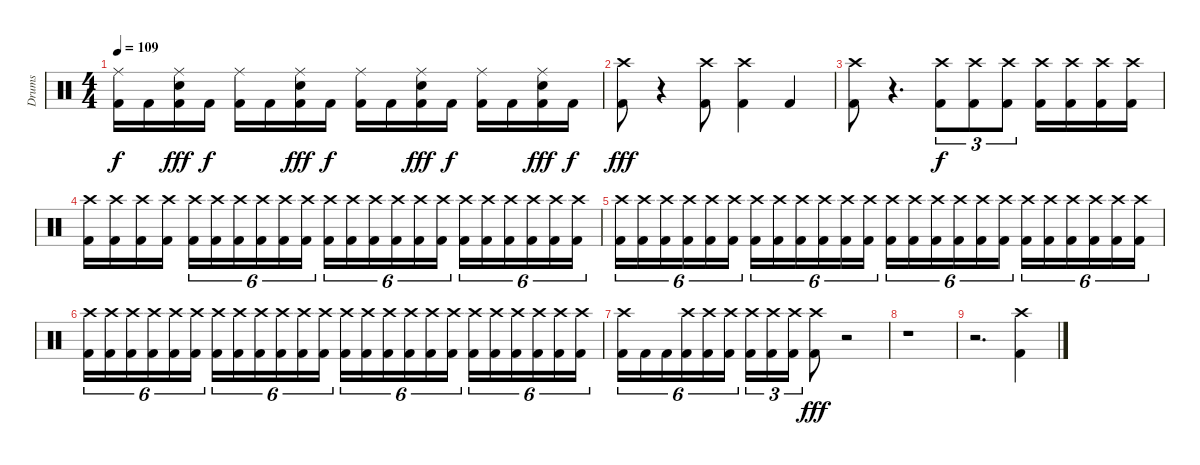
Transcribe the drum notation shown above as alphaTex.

\track ("Drums" "Drums") {instrument percussion}
\staff {score}
\articulation defaults
\ts (4 4)
\tempo 109
\clef neutral
\ks c
("Ride (middle)" "Kick (hit) 2").16{dy f} "Kick (hit) 2".16 ("Kick (hit) 2" "Snare (hit) 2" "Ride (middle)").16{dy fff} "Kick (hit) 2".16{dy f} ("Ride (middle)" "Kick (hit) 2").16 "Kick (hit) 2".16 ("Kick (hit) 2" "Snare (hit) 2" "Ride (middle)").16{dy fff} "Kick (hit) 2".16{dy f} ("Ride (middle)" "Kick (hit) 2").16 "Kick (hit) 2".16 ("Kick (hit) 2" "Snare (hit) 2" "Ride (middle)").16{dy fff} "Kick (hit) 2".16{dy f} ("Ride (middle)" "Kick (hit) 2").16 "Kick (hit) 2".16 ("Kick (hit) 2" "Snare (hit) 2" "Ride (middle)").16{dy fff} "Kick (hit) 2".16{dy f} |
("Kick (hit) 2" "Crash high (hit)").8{dy fff} r.4 ("Kick (hit) 2" "Crash high (hit)").8 ("Kick (hit) 2" "Crash high (hit)").4 "Kick (hit) 2".4 |
("Crash high (hit)" "Kick (hit) 2").8 r.4{d} ("Kick (hit) 2" "Crash high (hit)").8{tu (3 2) dy f} ("Kick (hit) 2" "Crash high (hit)").8{tu (3 2)} ("Kick (hit) 2" "Crash high (hit)").8{tu (3 2)} ("Kick (hit) 2" "Crash high (hit)").16 ("Kick (hit) 2" "Crash high (hit)").16 ("Kick (hit) 2" "Crash high (hit)").16 ("Kick (hit) 2" "Crash high (hit)").16 |
("Kick (hit) 2" "Crash high (hit)").16 ("Kick (hit) 2" "Crash high (hit)").16 ("Kick (hit) 2" "Crash high (hit)").16 ("Kick (hit) 2" "Crash high (hit)").16 ("Kick (hit) 2" "Crash high (hit)").16{tu (6 4)} ("Kick (hit) 2" "Crash high (hit)").16{tu (6 4)} ("Kick (hit) 2" "Crash high (hit)").16{tu (6 4)} ("Kick (hit) 2" "Crash high (hit)").16{tu (6 4)} ("Kick (hit) 2" "Crash high (hit)").16{tu (6 4)} ("Kick (hit) 2" "Crash high (hit)").16{tu (6 4)} ("Kick (hit) 2" "Crash high (hit)").16{tu (6 4)} ("Kick (hit) 2" "Crash high (hit)").16{tu (6 4)} ("Kick (hit) 2" "Crash high (hit)").16{tu (6 4)} ("Kick (hit) 2" "Crash high (hit)").16{tu (6 4)} ("Kick (hit) 2" "Crash high (hit)").16{tu (6 4)} ("Kick (hit) 2" "Crash high (hit)").16{tu (6 4)} ("Kick (hit) 2" "Crash high (hit)").16{tu (6 4)} ("Kick (hit) 2" "Crash high (hit)").16{tu (6 4)} ("Kick (hit) 2" "Crash high (hit)").16{tu (6 4)} ("Kick (hit) 2" "Crash high (hit)").16{tu (6 4)} ("Kick (hit) 2" "Crash high (hit)").16{tu (6 4)} ("Kick (hit) 2" "Crash high (hit)").16{tu (6 4)} |
("Kick (hit) 2" "Crash high (hit)").16{tu (6 4)} ("Kick (hit) 2" "Crash high (hit)").16{tu (6 4)} ("Kick (hit) 2" "Crash high (hit)").16{tu (6 4)} ("Kick (hit) 2" "Crash high (hit)").16{tu (6 4)} ("Kick (hit) 2" "Crash high (hit)").16{tu (6 4)} ("Kick (hit) 2" "Crash high (hit)").16{tu (6 4)} ("Kick (hit) 2" "Crash high (hit)").16{tu (6 4)} ("Kick (hit) 2" "Crash high (hit)").16{tu (6 4)} ("Kick (hit) 2" "Crash high (hit)").16{tu (6 4)} ("Kick (hit) 2" "Crash high (hit)").16{tu (6 4)} ("Kick (hit) 2" "Crash high (hit)").16{tu (6 4)} ("Kick (hit) 2" "Crash high (hit)").16{tu (6 4)} ("Kick (hit) 2" "Crash high (hit)").16{tu (6 4)} ("Kick (hit) 2" "Crash high (hit)").16{tu (6 4)} ("Kick (hit) 2" "Crash high (hit)").16{tu (6 4)} ("Kick (hit) 2" "Crash high (hit)").16{tu (6 4)} ("Kick (hit) 2" "Crash high (hit)").16{tu (6 4)} ("Kick (hit) 2" "Crash high (hit)").16{tu (6 4)} ("Kick (hit) 2" "Crash high (hit)").16{tu (6 4)} ("Kick (hit) 2" "Crash high (hit)").16{tu (6 4)} ("Kick (hit) 2" "Crash high (hit)").16{tu (6 4)} ("Kick (hit) 2" "Crash high (hit)").16{tu (6 4)} ("Kick (hit) 2" "Crash high (hit)").16{tu (6 4)} ("Kick (hit) 2" "Crash high (hit)").16{tu (6 4)} |
("Kick (hit) 2" "Crash high (hit)").16{tu (6 4)} ("Kick (hit) 2" "Crash high (hit)").16{tu (6 4)} ("Kick (hit) 2" "Crash high (hit)").16{tu (6 4)} ("Kick (hit) 2" "Crash high (hit)").16{tu (6 4)} ("Kick (hit) 2" "Crash high (hit)").16{tu (6 4)} ("Kick (hit) 2" "Crash high (hit)").16{tu (6 4)} ("Kick (hit) 2" "Crash high (hit)").16{tu (6 4)} ("Kick (hit) 2" "Crash high (hit)").16{tu (6 4)} ("Kick (hit) 2" "Crash high (hit)").16{tu (6 4)} ("Kick (hit) 2" "Crash high (hit)").16{tu (6 4)} ("Kick (hit) 2" "Crash high (hit)").16{tu (6 4)} ("Kick (hit) 2" "Crash high (hit)").16{tu (6 4)} ("Kick (hit) 2" "Crash high (hit)").16{tu (6 4)} ("Crash high (hit)" "Kick (hit) 2").16{tu (6 4)} ("Crash high (hit)" "Kick (hit) 2").16{tu (6 4)} ("Crash high (hit)" "Kick (hit) 2").16{tu (6 4)} ("Crash high (hit)" "Kick (hit) 2").16{tu (6 4)} ("Crash high (hit)" "Kick (hit) 2").16{tu (6 4)} ("Kick (hit) 2" "Crash high (hit)").16{tu (6 4)} ("Kick (hit) 2" "Crash high (hit)").16{tu (6 4)} ("Kick (hit) 2" "Crash high (hit)").16{tu (6 4)} ("Kick (hit) 2" "Crash high (hit)").16{tu (6 4)} ("Kick (hit) 2" "Crash high (hit)").16{tu (6 4)} ("Kick (hit) 2" "Crash high (hit)").16{tu (6 4)} |
("Kick (hit) 2" "Crash high (hit)").16{tu (6 4)} "Kick (hit) 2".16{tu (6 4)} "Kick (hit) 2".16{tu (6 4)} ("Crash high (hit)" "Kick (hit) 2").16{tu (6 4)} ("Crash high (hit)" "Kick (hit) 2").16{tu (6 4)} ("Crash high (hit)" "Kick (hit) 2").16{tu (6 4)} ("Crash high (hit)" "Kick (hit) 2").16{tu (3 2)} ("Crash high (hit)" "Kick (hit) 2").16{tu (3 2)} ("Crash high (hit)" "Kick (hit) 2").16{tu (3 2)} ("Kick (hit) 2" "Crash high (hit)").8{dy fff} r.2 |
r.1 |
r.2{d} ("Kick (hit) 2" "Crash high (hit)").4
